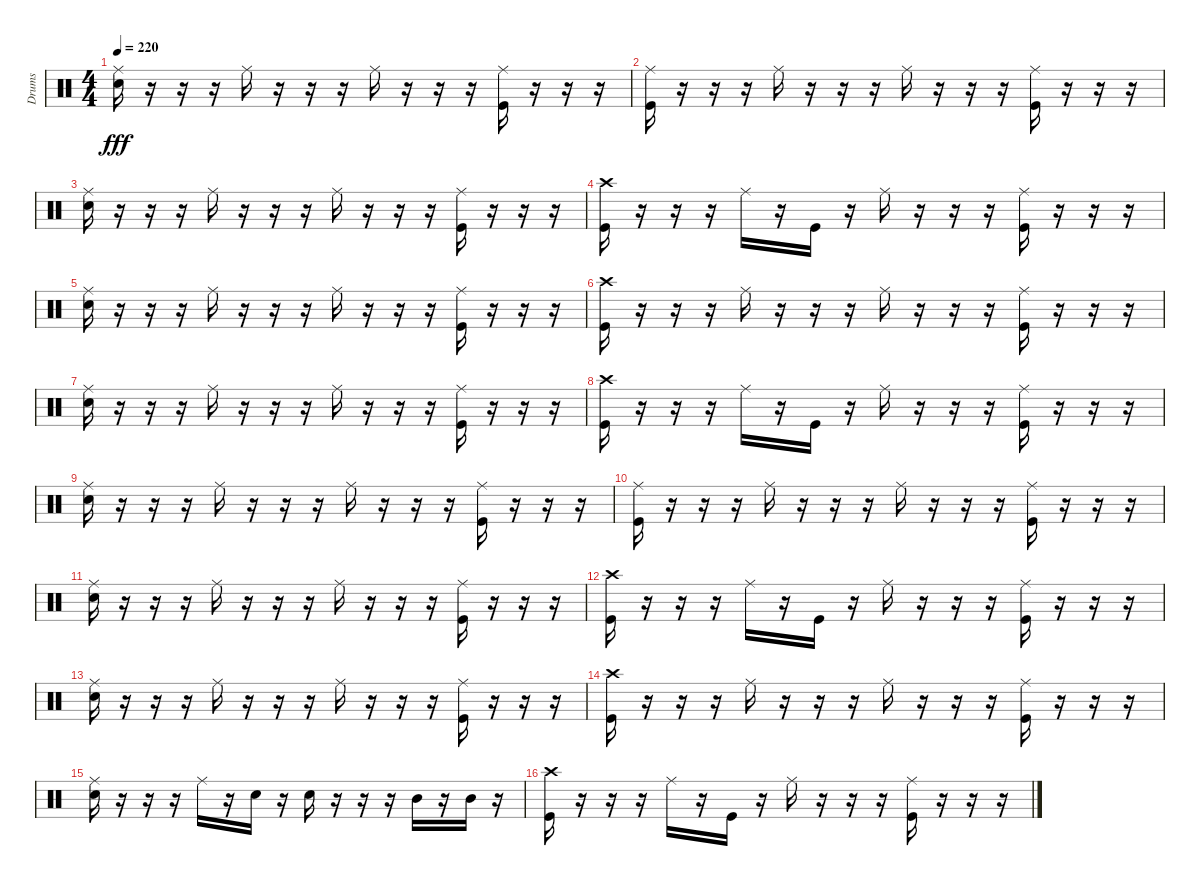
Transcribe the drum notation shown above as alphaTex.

\track ("Drums" "Drums") {instrument percussion}
\staff {score}
\articulation defaults
\ts (4 4)
\tempo 220
\clef neutral
\ks c
("Ride (middle)" "Electric Snare (hit)").16{dy fff} r.16 r.16 r.16 "Ride (middle)".16 r.16 r.16 r.16 "Ride (middle)".16 r.16 r.16 r.16 ("Ride (middle)" "Kick (hit)").16 r.16 r.16 r.16 |
("Ride (middle)" "Kick (hit)").16 r.16 r.16 r.16 "Ride (middle)".16 r.16 r.16 r.16 "Ride (middle)".16 r.16 r.16 r.16 ("Ride (middle)" "Kick (hit)").16 r.16 r.16 r.16 |
("Ride (middle)" "Electric Snare (hit)").16 r.16 r.16 r.16 "Ride (middle)".16 r.16 r.16 r.16 "Ride (middle)".16 r.16 r.16 r.16 ("Ride (middle)" "Kick (hit)").16 r.16 r.16 r.16 |
("Crash high (hit)" "Kick (hit)").16 r.16 r.16 r.16 "Ride (middle)".16 r.16 "Kick (hit)".16 r.16 "Ride (middle)".16 r.16 r.16 r.16 ("Ride (middle)" "Kick (hit)").16 r.16 r.16 r.16 |
("Ride (middle)" "Electric Snare (hit)").16 r.16 r.16 r.16 "Ride (middle)".16 r.16 r.16 r.16 "Ride (middle)".16 r.16 r.16 r.16 ("Ride (middle)" "Kick (hit)").16 r.16 r.16 r.16 |
("Crash high (hit)" "Kick (hit)").16 r.16 r.16 r.16 "Ride (middle)".16 r.16 r.16 r.16 "Ride (middle)".16 r.16 r.16 r.16 ("Ride (middle)" "Kick (hit)").16 r.16 r.16 r.16 |
("Ride (middle)" "Electric Snare (hit)").16 r.16 r.16 r.16 "Ride (middle)".16 r.16 r.16 r.16 "Ride (middle)".16 r.16 r.16 r.16 ("Ride (middle)" "Kick (hit)").16 r.16 r.16 r.16 |
("Crash high (hit)" "Kick (hit)").16 r.16 r.16 r.16 "Ride (middle)".16 r.16 "Kick (hit)".16 r.16 "Ride (middle)".16 r.16 r.16 r.16 ("Ride (middle)" "Kick (hit)").16 r.16 r.16 r.16 |
("Ride (middle)" "Electric Snare (hit)").16 r.16 r.16 r.16 "Ride (middle)".16 r.16 r.16 r.16 "Ride (middle)".16 r.16 r.16 r.16 ("Ride (middle)" "Kick (hit)").16 r.16 r.16 r.16 |
("Ride (middle)" "Kick (hit)").16 r.16 r.16 r.16 "Ride (middle)".16 r.16 r.16 r.16 "Ride (middle)".16 r.16 r.16 r.16 ("Ride (middle)" "Kick (hit)").16 r.16 r.16 r.16 |
("Ride (middle)" "Electric Snare (hit)").16 r.16 r.16 r.16 "Ride (middle)".16 r.16 r.16 r.16 "Ride (middle)".16 r.16 r.16 r.16 ("Ride (middle)" "Kick (hit)").16 r.16 r.16 r.16 |
("Crash high (hit)" "Kick (hit)").16 r.16 r.16 r.16 "Ride (middle)".16 r.16 "Kick (hit)".16 r.16 "Ride (middle)".16 r.16 r.16 r.16 ("Ride (middle)" "Kick (hit)").16 r.16 r.16 r.16 |
("Ride (middle)" "Electric Snare (hit)").16 r.16 r.16 r.16 "Ride (middle)".16 r.16 r.16 r.16 "Ride (middle)".16 r.16 r.16 r.16 ("Ride (middle)" "Kick (hit)").16 r.16 r.16 r.16 |
("Crash high (hit)" "Kick (hit)").16 r.16 r.16 r.16 "Ride (middle)".16 r.16 r.16 r.16 "Ride (middle)".16 r.16 r.16 r.16 ("Ride (middle)" "Kick (hit)").16 r.16 r.16 r.16 |
("Ride (middle)" "Electric Snare (hit)").16 r.16 r.16 r.16 "Ride (middle)".16 r.16 "Electric Snare (hit)".16 r.16 "Electric Snare (hit)".16 r.16 r.16 r.16 "Mid Tom (hit)".16 r.16 "Mid Tom (hit)".16 r.16 |
("Crash high (hit)" "Kick (hit)").16 r.16 r.16 r.16 "Ride (middle)".16 r.16 "Kick (hit)".16 r.16 "Ride (middle)".16 r.16 r.16 r.16 ("Ride (middle)" "Kick (hit)").16 r.16 r.16 r.16
